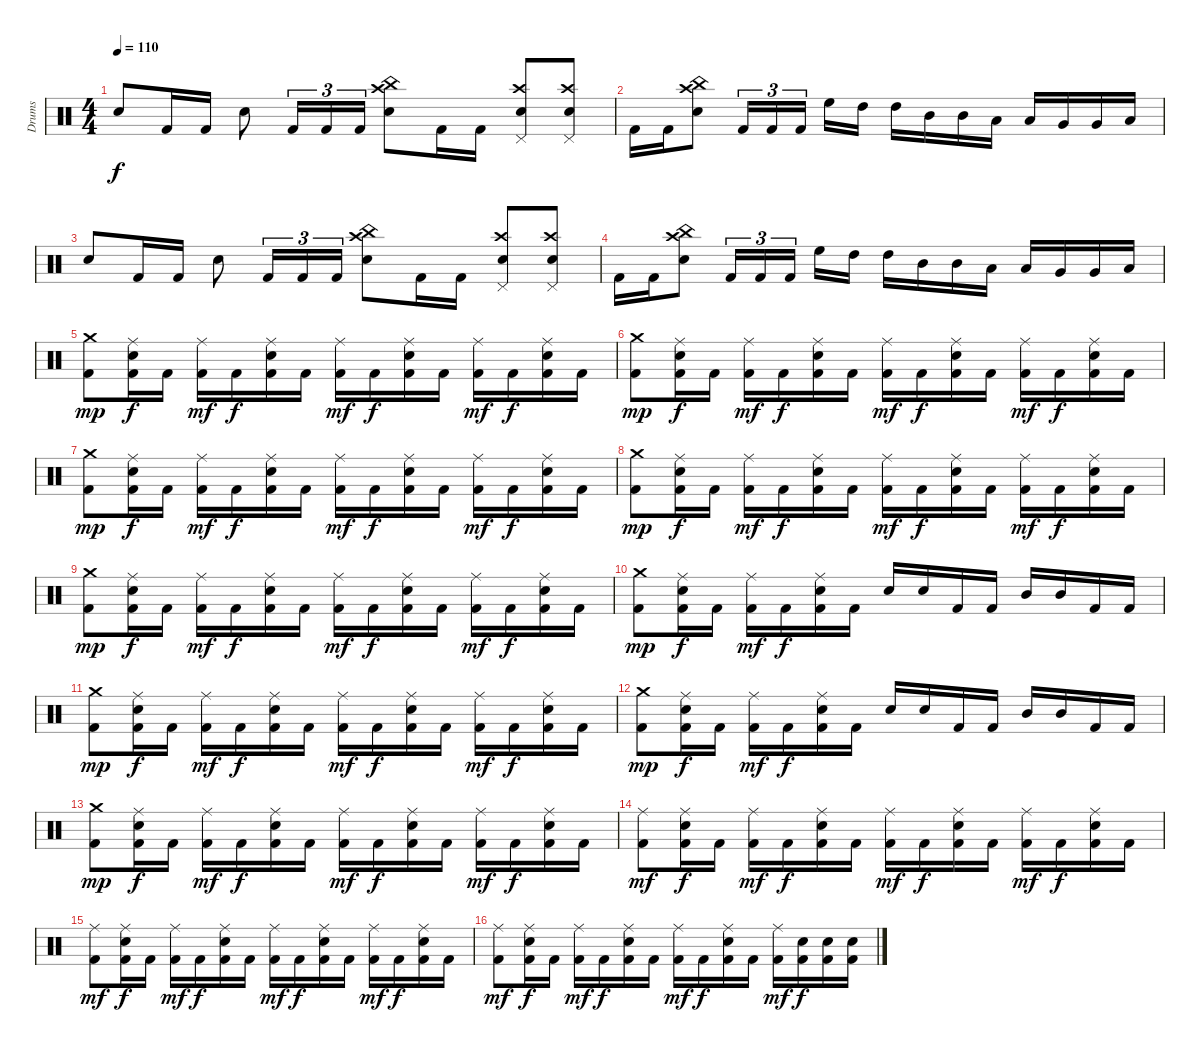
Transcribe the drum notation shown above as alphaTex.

\track ("Drums" "Drums") {instrument percussion}
\staff {score}
\articulation defaults
\ts (4 4)
\tempo 110
\clef neutral
\ks c "Snare (hit) 2".8{dy f} "Kick (hit) 2".16 "Kick (hit) 2".16 "Snare (hit) 2".8 "Kick (hit) 2".16{tu (3 2)} "Kick (hit) 2".16{tu (3 2)} "Kick (hit) 2".16{tu (3 2)}
("Crash high (hit)" "China (hit)" "Snare (hit) 2").8 "Kick (hit) 2".16 "Kick (hit) 2".16 ("Snare (hit) 2" "Crash high (hit)" "Pedal Hi-Hat (hit)").8 ("Snare (hit) 2" "Crash high (hit)" "Pedal Hi-Hat (hit)").8 |
"Kick (hit) 2".16 "Kick (hit) 2".16 ("Crash high (hit)" "Snare (hit) 2" "China (hit)").8 "Kick (hit) 2".16{tu (3 2)} "Kick (hit) 2".16{tu (3 2)} "Kick (hit) 2".16{tu (3 2)} "High Floor Tom (hit)".16 "High Tom (hit)".16 "High Tom (hit)".16 "Mid Tom (hit)".16 "Mid Tom (hit)".16 "Low Tom (hit)".16 "Low Tom (hit)".16 "Very Low Tom (hit)".16 "Very Low Tom (hit)".16 "Low Floor Tom (hit)".16 |
"Snare (hit) 2".8 "Kick (hit) 2".16 "Kick (hit) 2".16 "Snare (hit) 2".8 "Kick (hit) 2".16{tu (3 2)} "Kick (hit) 2".16{tu (3 2)} "Kick (hit) 2".16{tu (3 2)} ("Crash high (hit)" "China (hit)" "Snare (hit) 2").8 "Kick (hit) 2".16 "Kick (hit) 2".16 ("Snare (hit) 2" "Crash high (hit)" "Pedal Hi-Hat (hit)").8 ("Snare (hit) 2" "Crash high (hit)" "Pedal Hi-Hat (hit)").8 |
"Kick (hit) 2".16 "Kick (hit) 2".16 ("Crash high (hit)" "Snare (hit) 2" "China (hit)").8 "Kick (hit) 2".16{tu (3 2)} "Kick (hit) 2".16{tu (3 2)} "Kick (hit) 2".16{tu (3 2)} "High Floor Tom (hit)".16 "High Tom (hit)".16 "High Tom (hit)".16 "Mid Tom (hit)".16 "Mid Tom (hit)".16 "Low Tom (hit)".16 "Low Tom (hit)".16 "Very Low Tom (hit)".16 "Very Low Tom (hit)".16 "Low Floor Tom (hit)".16 |
("Crash medium (hit)" "Kick (hit) 2").8{dy mp} ("Ride (middle)" "Electric Snare (hit)" "Kick (hit) 2").16{dy f} "Kick (hit) 2".16 ("Ride (middle)" "Kick (hit) 2").16{dy mf} "Kick (hit) 2".16{dy f} ("Ride (middle)" "Electric Snare (hit)" "Kick (hit) 2").16 "Kick (hit) 2".16 ("Ride (middle)" "Kick (hit) 2").16{dy mf} "Kick (hit) 2".16{dy f} ("Ride (middle)" "Electric Snare (hit)" "Kick (hit) 2").16 "Kick (hit) 2".16 ("Ride (middle)" "Kick (hit) 2").16{dy mf} "Kick (hit) 2".16{dy f} ("Ride (middle)" "Electric Snare (hit)" "Kick (hit) 2").16 "Kick (hit) 2".16 |
("Crash medium (hit)" "Kick (hit) 2").8{dy mp} ("Ride (middle)" "Electric Snare (hit)" "Kick (hit) 2").16{dy f} "Kick (hit) 2".16 ("Ride (middle)" "Kick (hit) 2").16{dy mf} "Kick (hit) 2".16{dy f} ("Ride (middle)" "Electric Snare (hit)" "Kick (hit) 2").16 "Kick (hit) 2".16 ("Ride (middle)" "Kick (hit) 2").16{dy mf} "Kick (hit) 2".16{dy f} ("Ride (middle)" "Electric Snare (hit)" "Kick (hit) 2").16 "Kick (hit) 2".16 ("Ride (middle)" "Kick (hit) 2").16{dy mf} "Kick (hit) 2".16{dy f} ("Ride (middle)" "Electric Snare (hit)" "Kick (hit) 2").16 "Kick (hit) 2".16 |
("Crash medium (hit)" "Kick (hit) 2").8{dy mp} ("Ride (middle)" "Electric Snare (hit)" "Kick (hit) 2").16{dy f} "Kick (hit) 2".16 ("Ride (middle)" "Kick (hit) 2").16{dy mf} "Kick (hit) 2".16{dy f} ("Ride (middle)" "Electric Snare (hit)" "Kick (hit) 2").16 "Kick (hit) 2".16 ("Ride (middle)" "Kick (hit) 2").16{dy mf} "Kick (hit) 2".16{dy f} ("Ride (middle)" "Electric Snare (hit)" "Kick (hit) 2").16 "Kick (hit) 2".16 ("Ride (middle)" "Kick (hit) 2").16{dy mf} "Kick (hit) 2".16{dy f} ("Ride (middle)" "Electric Snare (hit)" "Kick (hit) 2").16 "Kick (hit) 2".16 |
("Crash medium (hit)" "Kick (hit) 2").8{dy mp} ("Ride (middle)" "Electric Snare (hit)" "Kick (hit) 2").16{dy f} "Kick (hit) 2".16 ("Ride (middle)" "Kick (hit) 2").16{dy mf} "Kick (hit) 2".16{dy f} ("Ride (middle)" "Electric Snare (hit)" "Kick (hit) 2").16 "Kick (hit) 2".16 ("Ride (middle)" "Kick (hit) 2").16{dy mf} "Kick (hit) 2".16{dy f} ("Ride (middle)" "Electric Snare (hit)" "Kick (hit) 2").16 "Kick (hit) 2".16 ("Ride (middle)" "Kick (hit) 2").16{dy mf} "Kick (hit) 2".16{dy f} ("Ride (middle)" "Electric Snare (hit)" "Kick (hit) 2").16 "Kick (hit) 2".16 |
("Crash medium (hit)" "Kick (hit) 2").8{dy mp} ("Ride (middle)" "Electric Snare (hit)" "Kick (hit) 2").16{dy f} "Kick (hit) 2".16 ("Ride (middle)" "Kick (hit) 2").16{dy mf} "Kick (hit) 2".16{dy f} ("Ride (middle)" "Electric Snare (hit)" "Kick (hit) 2").16 "Kick (hit) 2".16 ("Ride (middle)" "Kick (hit) 2").16{dy mf} "Kick (hit) 2".16{dy f} ("Ride (middle)" "Electric Snare (hit)" "Kick (hit) 2").16 "Kick (hit) 2".16 ("Ride (middle)" "Kick (hit) 2").16{dy mf} "Kick (hit) 2".16{dy f} ("Ride (middle)" "Electric Snare (hit)" "Kick (hit) 2").16 "Kick (hit) 2".16 |
("Crash medium (hit)" "Kick (hit) 2").8{dy mp} ("Ride (middle)" "Electric Snare (hit)" "Kick (hit) 2").16{dy f} "Kick (hit) 2".16 ("Ride (middle)" "Kick (hit) 2").16{dy mf} "Kick (hit) 2".16{dy f} ("Ride (middle)" "Electric Snare (hit)" "Kick (hit) 2").16 "Kick (hit) 2".16 "Electric Snare (hit)".16 "Electric Snare (hit)".16 "Kick (hit) 2".16 "Kick (hit) 2".16 "Mid Tom (hit)".16 "Mid Tom (hit)".16 "Kick (hit) 2".16 "Kick (hit) 2".16 |
("Crash medium (hit)" "Kick (hit) 2").8{dy mp} ("Ride (middle)" "Electric Snare (hit)" "Kick (hit) 2").16{dy f} "Kick (hit) 2".16 ("Ride (middle)" "Kick (hit) 2").16{dy mf} "Kick (hit) 2".16{dy f} ("Ride (middle)" "Electric Snare (hit)" "Kick (hit) 2").16 "Kick (hit) 2".16 ("Ride (middle)" "Kick (hit) 2").16{dy mf} "Kick (hit) 2".16{dy f} ("Ride (middle)" "Electric Snare (hit)" "Kick (hit) 2").16 "Kick (hit) 2".16 ("Ride (middle)" "Kick (hit) 2").16{dy mf} "Kick (hit) 2".16{dy f} ("Ride (middle)" "Electric Snare (hit)" "Kick (hit) 2").16 "Kick (hit) 2".16 |
("Crash medium (hit)" "Kick (hit) 2").8{dy mp} ("Ride (middle)" "Electric Snare (hit)" "Kick (hit) 2").16{dy f} "Kick (hit) 2".16 ("Ride (middle)" "Kick (hit) 2").16{dy mf} "Kick (hit) 2".16{dy f} ("Ride (middle)" "Electric Snare (hit)" "Kick (hit) 2").16 "Kick (hit) 2".16 "Electric Snare (hit)".16 "Electric Snare (hit)".16 "Kick (hit) 2".16 "Kick (hit) 2".16 "Mid Tom (hit)".16 "Mid Tom (hit)".16 "Kick (hit) 2".16 "Kick (hit) 2".16 |
("Crash medium (hit)" "Kick (hit) 2").8{dy mp} ("Ride (middle)" "Electric Snare (hit)" "Kick (hit) 2").16{dy f} "Kick (hit) 2".16 ("Ride (middle)" "Kick (hit) 2").16{dy mf} "Kick (hit) 2".16{dy f} ("Ride (middle)" "Electric Snare (hit)" "Kick (hit) 2").16 "Kick (hit) 2".16 ("Ride (middle)" "Kick (hit) 2").16{dy mf} "Kick (hit) 2".16{dy f} ("Ride (middle)" "Electric Snare (hit)" "Kick (hit) 2").16 "Kick (hit) 2".16 ("Ride (middle)" "Kick (hit) 2").16{dy mf} "Kick (hit) 2".16{dy f} ("Ride (middle)" "Electric Snare (hit)" "Kick (hit) 2").16 "Kick (hit) 2".16 |
("Ride (middle)" "Kick (hit) 2").8{dy mf} ("Ride (middle)" "Electric Snare (hit)" "Kick (hit) 2").16{dy f} "Kick (hit) 2".16 ("Ride (middle)" "Kick (hit) 2").16{dy mf} "Kick (hit) 2".16{dy f} ("Ride (middle)" "Electric Snare (hit)" "Kick (hit) 2").16 "Kick (hit) 2".16 ("Ride (middle)" "Kick (hit) 2").16{dy mf} "Kick (hit) 2".16{dy f} ("Ride (middle)" "Electric Snare (hit)" "Kick (hit) 2").16 "Kick (hit) 2".16 ("Ride (middle)" "Kick (hit) 2").16{dy mf} "Kick (hit) 2".16{dy f} ("Ride (middle)" "Electric Snare (hit)" "Kick (hit) 2").16 "Kick (hit) 2".16 |
("Ride (middle)" "Kick (hit) 2").8{dy mf} ("Ride (middle)" "Electric Snare (hit)" "Kick (hit) 2").16{dy f} "Kick (hit) 2".16 ("Ride (middle)" "Kick (hit) 2").16{dy mf} "Kick (hit) 2".16{dy f} ("Ride (middle)" "Electric Snare (hit)" "Kick (hit) 2").16 "Kick (hit) 2".16 ("Ride (middle)" "Kick (hit) 2").16{dy mf} "Kick (hit) 2".16{dy f} ("Ride (middle)" "Electric Snare (hit)" "Kick (hit) 2").16 "Kick (hit) 2".16 ("Ride (middle)" "Kick (hit) 2").16{dy mf} "Kick (hit) 2".16{dy f} ("Ride (middle)" "Electric Snare (hit)" "Kick (hit) 2").16 "Kick (hit) 2".16 |
("Ride (middle)" "Kick (hit) 2").8{dy mf} ("Ride (middle)" "Electric Snare (hit)" "Kick (hit) 2").16{dy f} "Kick (hit) 2".16 ("Ride (middle)" "Kick (hit) 2").16{dy mf} "Kick (hit) 2".16{dy f} ("Ride (middle)" "Electric Snare (hit)" "Kick (hit) 2").16 "Kick (hit) 2".16 ("Ride (middle)" "Kick (hit) 2").16{dy mf} "Kick (hit) 2".16{dy f} ("Ride (middle)" "Electric Snare (hit)" "Kick (hit) 2").16 "Kick (hit) 2".16 ("Ride (middle)" "Kick (hit) 2").16{dy mf} ("Electric Snare (hit)" "Kick (hit) 2").16{dy f} ("Electric Snare (hit)" "Kick (hit) 2").16 ("Electric Snare (hit)" "Kick (hit) 2").16
